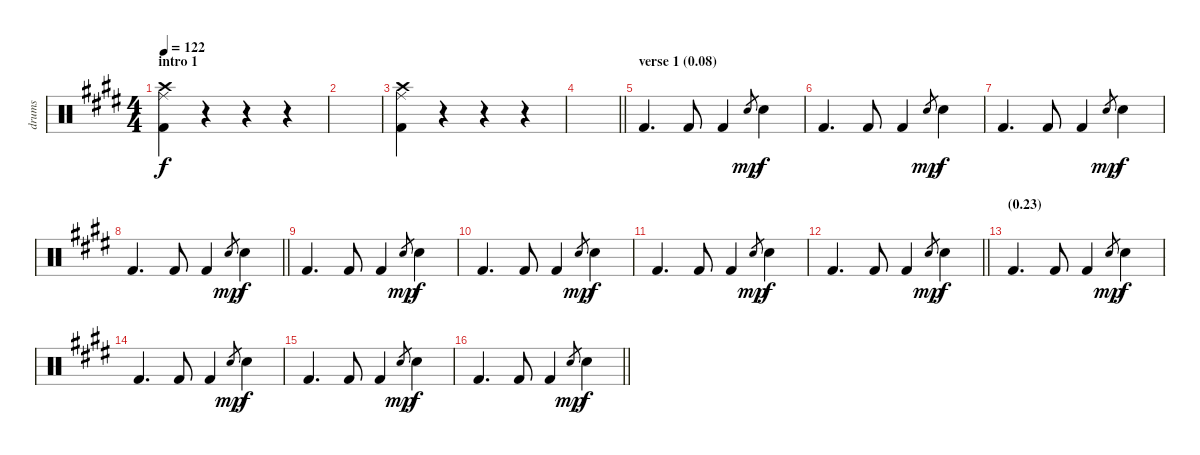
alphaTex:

\track ("drums" "drums") {instrument percussion}
\staff {score}
\articulation defaults
\ts (4 4)
\section ("" "intro 1")
\tempo 122
\clef neutral
\ks e
("Ride (middle)" "Crash high (hit)" "Kick (hit) 2").4{dy f} r.4 r.4 r.4 |
|
("Ride (middle)" "Crash high (hit)" "Kick (hit) 2").4 r.4 r.4 r.4 |
\barLineRight lightlight
|
\section ("" "verse 1 (0.08)")
"Kick (hit) 2".4{d} "Kick (hit) 2".8 "Kick (hit) 2".4 "Electric Snare (hit)".8{gr dy mp} "Electric Snare (hit)".4{dy f} |
"Kick (hit) 2".4{d} "Kick (hit) 2".8 "Kick (hit) 2".4 "Electric Snare (hit)".8{gr dy mp} "Electric Snare (hit)".4{dy f} |
"Kick (hit) 2".4{d} "Kick (hit) 2".8 "Kick (hit) 2".4 "Electric Snare (hit)".8{gr dy mp} "Electric Snare (hit)".4{dy f} |
\barLineRight lightlight "Kick (hit) 2".4{d} "Kick (hit) 2".8 "Kick (hit) 2".4 "Electric Snare (hit)".8{gr dy mp} "Electric Snare (hit)".4{dy f}
|
"Kick (hit) 2".4{d} "Kick (hit) 2".8 "Kick (hit) 2".4 "Electric Snare (hit)".8{gr dy mp} "Electric Snare (hit)".4{dy f} |
"Kick (hit) 2".4{d} "Kick (hit) 2".8 "Kick (hit) 2".4 "Electric Snare (hit)".8{gr dy mp} "Electric Snare (hit)".4{dy f} |
"Kick (hit) 2".4{d} "Kick (hit) 2".8 "Kick (hit) 2".4 "Electric Snare (hit)".8{gr dy mp} "Electric Snare (hit)".4{dy f} |
\barLineRight lightlight "Kick (hit) 2".4{d} "Kick (hit) 2".8 "Kick (hit) 2".4 "Electric Snare (hit)".8{gr dy mp} "Electric Snare (hit)".4{dy f}
|
\section ("" "(0.23)")
"Kick (hit) 2".4{d} "Kick (hit) 2".8 "Kick (hit) 2".4 "Electric Snare (hit)".8{gr dy mp} "Electric Snare (hit)".4{dy f} |
"Kick (hit) 2".4{d} "Kick (hit) 2".8 "Kick (hit) 2".4 "Electric Snare (hit)".8{gr dy mp} "Electric Snare (hit)".4{dy f} |
"Kick (hit) 2".4{d} "Kick (hit) 2".8 "Kick (hit) 2".4 "Electric Snare (hit)".8{gr dy mp} "Electric Snare (hit)".4{dy f} |
\barLineRight lightlight "Kick (hit) 2".4{d} "Kick (hit) 2".8 "Kick (hit) 2".4 "Electric Snare (hit)".8{gr dy mp} "Electric Snare (hit)".4{dy f}
